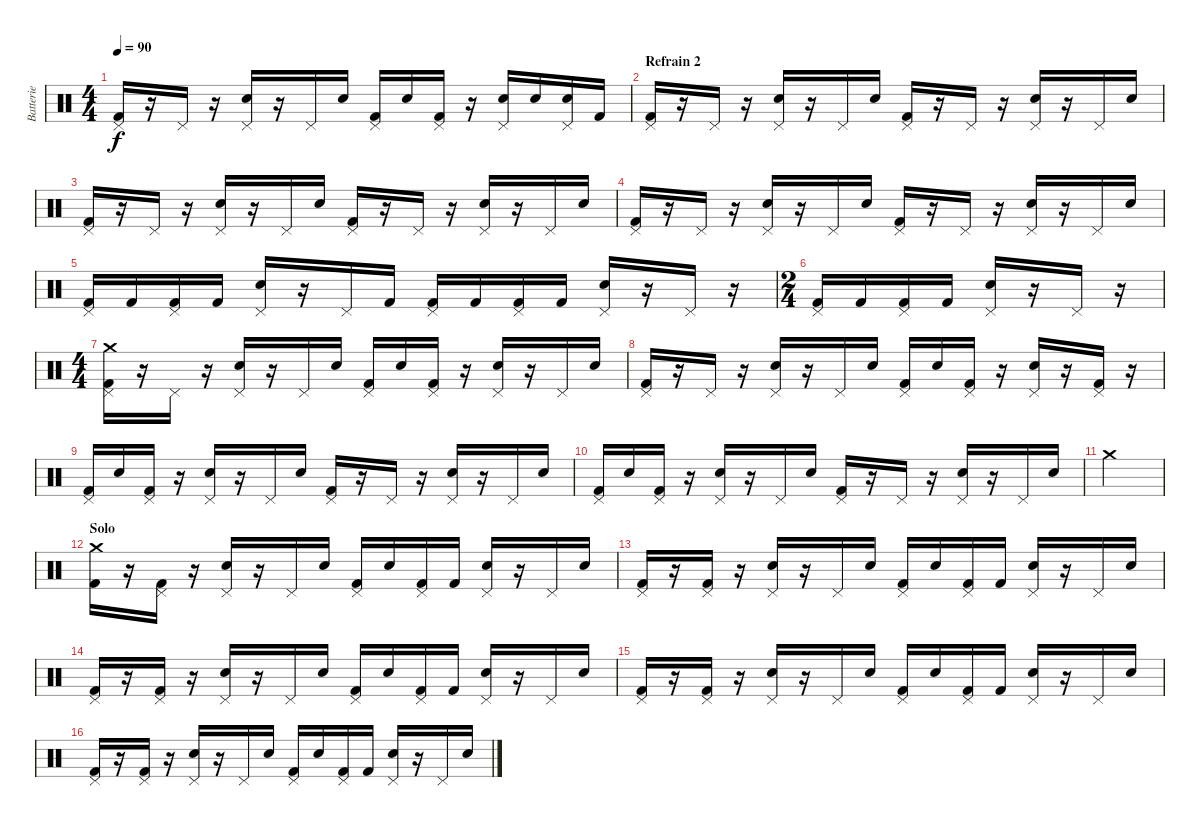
\track ("Batterie" "Batterie") {instrument percussion}
\staff {score}
\articulation defaults
\ts (4 4)
\tempo 90
\clef neutral
\ks c
("Pedal Hi-Hat (hit)" "Kick (hit) 2").16{dy f} r.16 "Pedal Hi-Hat (hit)".16 r.16 ("Pedal Hi-Hat (hit)" "Electric Snare (hit)").16 r.16 "Pedal Hi-Hat (hit)".16 "Electric Snare (hit)".16 ("Pedal Hi-Hat (hit)" "Kick (hit) 2").16 "Electric Snare (hit)".16 ("Pedal Hi-Hat (hit)" "Kick (hit) 2").16 r.16 ("Pedal Hi-Hat (hit)" "Electric Snare (hit)").16 "Electric Snare (hit)".16 ("Pedal Hi-Hat (hit)" "Electric Snare (hit)").16 "Kick (hit) 2".16 |
\section ("" "Refrain 2")
("Pedal Hi-Hat (hit)" "Kick (hit) 2").16 r.16 "Pedal Hi-Hat (hit)".16 r.16 ("Pedal Hi-Hat (hit)" "Electric Snare (hit)").16 r.16 "Pedal Hi-Hat (hit)".16 "Electric Snare (hit)".16 ("Pedal Hi-Hat (hit)" "Kick (hit) 2").16 r.16 "Pedal Hi-Hat (hit)".16 r.16 ("Pedal Hi-Hat (hit)" "Electric Snare (hit)").16 r.16 "Pedal Hi-Hat (hit)".16 "Electric Snare (hit)".16 |
("Pedal Hi-Hat (hit)" "Kick (hit) 2").16 r.16 "Pedal Hi-Hat (hit)".16 r.16 ("Pedal Hi-Hat (hit)" "Electric Snare (hit)").16 r.16 "Pedal Hi-Hat (hit)".16 "Electric Snare (hit)".16 ("Pedal Hi-Hat (hit)" "Kick (hit) 2").16 r.16 "Pedal Hi-Hat (hit)".16 r.16 ("Pedal Hi-Hat (hit)" "Electric Snare (hit)").16 r.16 "Pedal Hi-Hat (hit)".16 "Electric Snare (hit)".16 |
("Pedal Hi-Hat (hit)" "Kick (hit) 2").16 r.16 "Pedal Hi-Hat (hit)".16 r.16 ("Pedal Hi-Hat (hit)" "Electric Snare (hit)").16 r.16 "Pedal Hi-Hat (hit)".16 "Electric Snare (hit)".16 ("Pedal Hi-Hat (hit)" "Kick (hit) 2").16 r.16 "Pedal Hi-Hat (hit)".16 r.16 ("Pedal Hi-Hat (hit)" "Electric Snare (hit)").16 r.16 "Pedal Hi-Hat (hit)".16 "Electric Snare (hit)".16 |
("Pedal Hi-Hat (hit)" "Kick (hit) 2").16 "Kick (hit) 2".16 ("Pedal Hi-Hat (hit)" "Kick (hit) 2").16 "Kick (hit) 2".16 ("Pedal Hi-Hat (hit)" "Electric Snare (hit)").16 r.16 "Pedal Hi-Hat (hit)".16 "Kick (hit) 2".16 ("Pedal Hi-Hat (hit)" "Kick (hit) 2").16 "Kick (hit) 2".16 ("Pedal Hi-Hat (hit)" "Kick (hit) 2").16 "Kick (hit) 2".16 ("Pedal Hi-Hat (hit)" "Electric Snare (hit)").16 r.16 "Pedal Hi-Hat (hit)".16 r.16 |
\ts (2 4)
("Pedal Hi-Hat (hit)" "Kick (hit) 2").16 "Kick (hit) 2".16 ("Pedal Hi-Hat (hit)" "Kick (hit) 2").16 "Kick (hit) 2".16 ("Pedal Hi-Hat (hit)" "Electric Snare (hit)").16 r.16 "Pedal Hi-Hat (hit)".16 r.16 |
\ts (4 4)
("Pedal Hi-Hat (hit)" "Crash medium (hit)" "Kick (hit) 2").16 r.16 "Pedal Hi-Hat (hit)".16 r.16 ("Pedal Hi-Hat (hit)" "Electric Snare (hit)").16 r.16 "Pedal Hi-Hat (hit)".16 "Electric Snare (hit)".16 ("Pedal Hi-Hat (hit)" "Kick (hit) 2").16 "Electric Snare (hit)".16 ("Pedal Hi-Hat (hit)" "Kick (hit) 2").16 r.16 ("Pedal Hi-Hat (hit)" "Electric Snare (hit)").16 r.16 "Pedal Hi-Hat (hit)".16 "Electric Snare (hit)".16 |
("Pedal Hi-Hat (hit)" "Kick (hit) 2").16 r.16 "Pedal Hi-Hat (hit)".16 r.16 ("Pedal Hi-Hat (hit)" "Electric Snare (hit)").16 r.16 "Pedal Hi-Hat (hit)".16 "Electric Snare (hit)".16 ("Pedal Hi-Hat (hit)" "Kick (hit) 2").16 "Electric Snare (hit)".16 ("Pedal Hi-Hat (hit)" "Kick (hit) 2").16 r.16 ("Pedal Hi-Hat (hit)" "Electric Snare (hit)").16 r.16 ("Pedal Hi-Hat (hit)" "Kick (hit) 2").16 r.16 |
("Pedal Hi-Hat (hit)" "Kick (hit) 2").16 "Electric Snare (hit)".16 ("Pedal Hi-Hat (hit)" "Kick (hit) 2").16 r.16 ("Pedal Hi-Hat (hit)" "Electric Snare (hit)").16 r.16 "Pedal Hi-Hat (hit)".16 "Electric Snare (hit)".16 ("Pedal Hi-Hat (hit)" "Kick (hit) 2").16 r.16 "Pedal Hi-Hat (hit)".16 r.16 ("Pedal Hi-Hat (hit)" "Electric Snare (hit)").16 r.16 "Pedal Hi-Hat (hit)".16 "Electric Snare (hit)".16 |
("Pedal Hi-Hat (hit)" "Kick (hit) 2").16 "Electric Snare (hit)".16 ("Pedal Hi-Hat (hit)" "Kick (hit) 2").16 r.16 ("Pedal Hi-Hat (hit)" "Electric Snare (hit)").16 r.16 "Pedal Hi-Hat (hit)".16 "Electric Snare (hit)".16 ("Pedal Hi-Hat (hit)" "Kick (hit) 2").16 r.16 "Pedal Hi-Hat (hit)".16 r.16 ("Pedal Hi-Hat (hit)" "Electric Snare (hit)").16 r.16 "Pedal Hi-Hat (hit)".16 "Electric Snare (hit)".16 |
"Crash medium (hit)".2 |
\section ("" "Solo")
("Crash medium (hit)" "Kick (hit) 2").16 r.16 ("Pedal Hi-Hat (hit)" "Kick (hit) 2").16 r.16 ("Pedal Hi-Hat (hit)" "Electric Snare (hit)").16 r.16 "Pedal Hi-Hat (hit)".16 "Electric Snare (hit)".16 ("Pedal Hi-Hat (hit)" "Kick (hit) 2").16 "Electric Snare (hit)".16 ("Pedal Hi-Hat (hit)" "Kick (hit) 2").16 "Kick (hit) 2".16 ("Pedal Hi-Hat (hit)" "Electric Snare (hit)").16 r.16 "Pedal Hi-Hat (hit)".16 "Electric Snare (hit)".16 |
("Pedal Hi-Hat (hit)" "Kick (hit) 2").16 r.16 ("Pedal Hi-Hat (hit)" "Kick (hit) 2").16 r.16 ("Pedal Hi-Hat (hit)" "Electric Snare (hit)").16 r.16 "Pedal Hi-Hat (hit)".16 "Electric Snare (hit)".16 ("Pedal Hi-Hat (hit)" "Kick (hit) 2").16 "Electric Snare (hit)".16 ("Pedal Hi-Hat (hit)" "Kick (hit) 2").16 "Kick (hit) 2".16 ("Pedal Hi-Hat (hit)" "Electric Snare (hit)").16 r.16 "Pedal Hi-Hat (hit)".16 "Electric Snare (hit)".16 |
("Pedal Hi-Hat (hit)" "Kick (hit) 2").16 r.16 ("Pedal Hi-Hat (hit)" "Kick (hit) 2").16 r.16 ("Pedal Hi-Hat (hit)" "Electric Snare (hit)").16 r.16 "Pedal Hi-Hat (hit)".16 "Electric Snare (hit)".16 ("Pedal Hi-Hat (hit)" "Kick (hit) 2").16 "Electric Snare (hit)".16 ("Pedal Hi-Hat (hit)" "Kick (hit) 2").16 "Kick (hit) 2".16 ("Pedal Hi-Hat (hit)" "Electric Snare (hit)").16 r.16 "Pedal Hi-Hat (hit)".16 "Electric Snare (hit)".16 |
("Pedal Hi-Hat (hit)" "Kick (hit) 2").16 r.16 ("Pedal Hi-Hat (hit)" "Kick (hit) 2").16 r.16 ("Pedal Hi-Hat (hit)" "Electric Snare (hit)").16 r.16 "Pedal Hi-Hat (hit)".16 "Electric Snare (hit)".16 ("Pedal Hi-Hat (hit)" "Kick (hit) 2").16 "Electric Snare (hit)".16 ("Pedal Hi-Hat (hit)" "Kick (hit) 2").16 "Kick (hit) 2".16 ("Pedal Hi-Hat (hit)" "Electric Snare (hit)").16 r.16 "Pedal Hi-Hat (hit)".16 "Electric Snare (hit)".16 |
("Pedal Hi-Hat (hit)" "Kick (hit) 2").16 r.16 ("Pedal Hi-Hat (hit)" "Kick (hit) 2").16 r.16 ("Pedal Hi-Hat (hit)" "Electric Snare (hit)").16 r.16 "Pedal Hi-Hat (hit)".16 "Electric Snare (hit)".16 ("Pedal Hi-Hat (hit)" "Kick (hit) 2").16 "Electric Snare (hit)".16 ("Pedal Hi-Hat (hit)" "Kick (hit) 2").16 "Kick (hit) 2".16 ("Pedal Hi-Hat (hit)" "Electric Snare (hit)").16 r.16 "Pedal Hi-Hat (hit)".16 "Electric Snare (hit)".16
